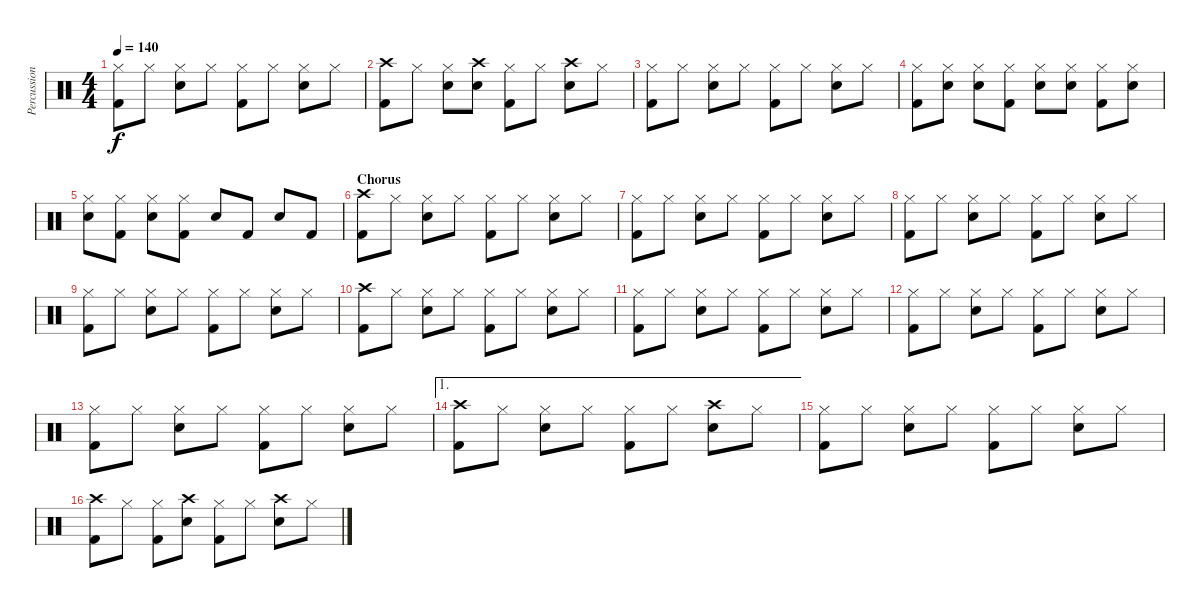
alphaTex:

\track ("Percussion" "Percussion") {instrument percussion}
\staff {score}
\articulation defaults
\ts (4 4)
\tempo 140
\clef neutral
\ks c
("Hi-Hat (closed)" "Kick (hit) 2").8{dy f} "Hi-Hat (closed)".8 ("Hi-Hat (closed)" "Snare (hit) 2").8 "Hi-Hat (closed)".8 ("Hi-Hat (closed)" "Kick (hit) 2").8 "Hi-Hat (closed)".8 ("Hi-Hat (closed)" "Snare (hit) 2").8 "Hi-Hat (closed)".8 |
("Crash high (hit)" "Kick (hit) 2").8 "Hi-Hat (closed)".8 ("Hi-Hat (closed)" "Snare (hit) 2").8 ("Crash high (hit)" "Snare (hit) 2").8 ("Hi-Hat (closed)" "Kick (hit) 2").8 "Hi-Hat (closed)".8 ("Crash high (hit)" "Snare (hit) 2").8 "Hi-Hat (closed)".8 |
("Hi-Hat (closed)" "Kick (hit) 2").8 "Hi-Hat (closed)".8 ("Hi-Hat (closed)" "Snare (hit) 2").8 "Hi-Hat (closed)".8 ("Hi-Hat (closed)" "Kick (hit) 2").8 "Hi-Hat (closed)".8 ("Hi-Hat (closed)" "Snare (hit) 2").8 "Hi-Hat (closed)".8 |
("Hi-Hat (closed)" "Kick (hit) 2").8 ("Hi-Hat (closed)" "Snare (hit) 2").8 ("Hi-Hat (closed)" "Snare (hit) 2").8 ("Hi-Hat (closed)" "Kick (hit) 2").8 ("Hi-Hat (closed)" "Snare (hit) 2").8 ("Hi-Hat (closed)" "Snare (hit) 2").8 ("Hi-Hat (closed)" "Kick (hit) 2").8 ("Hi-Hat (closed)" "Snare (hit) 2").8 |
("Hi-Hat (closed)" "Snare (hit) 2").8 ("Hi-Hat (closed)" "Kick (hit) 2").8 ("Hi-Hat (closed)" "Snare (hit) 2").8 ("Hi-Hat (closed)" "Kick (hit) 2").8 "Snare (hit) 2".8 "Kick (hit) 2".8 "Snare (hit) 2".8 "Kick (hit) 2".8 |
\section ("" "Chorus")
("Crash high (hit)" "Kick (hit) 2").8 "Hi-Hat (closed)".8 ("Hi-Hat (closed)" "Snare (hit) 2").8 "Hi-Hat (closed)".8 ("Hi-Hat (closed)" "Kick (hit) 2").8 "Hi-Hat (closed)".8 ("Hi-Hat (closed)" "Snare (hit) 2").8 "Hi-Hat (closed)".8 |
("Hi-Hat (closed)" "Kick (hit) 2").8 "Hi-Hat (closed)".8 ("Hi-Hat (closed)" "Snare (hit) 2").8 "Hi-Hat (closed)".8 ("Hi-Hat (closed)" "Kick (hit) 2").8 "Hi-Hat (closed)".8 ("Hi-Hat (closed)" "Snare (hit) 2").8 "Hi-Hat (closed)".8 |
("Hi-Hat (closed)" "Kick (hit) 2").8 "Hi-Hat (closed)".8 ("Hi-Hat (closed)" "Snare (hit) 2").8 "Hi-Hat (closed)".8 ("Hi-Hat (closed)" "Kick (hit) 2").8 "Hi-Hat (closed)".8 ("Hi-Hat (closed)" "Snare (hit) 2").8 "Hi-Hat (closed)".8 |
("Hi-Hat (closed)" "Kick (hit) 2").8 "Hi-Hat (closed)".8 ("Hi-Hat (closed)" "Snare (hit) 2").8 "Hi-Hat (closed)".8 ("Hi-Hat (closed)" "Kick (hit) 2").8 "Hi-Hat (closed)".8 ("Hi-Hat (closed)" "Snare (hit) 2").8 "Hi-Hat (closed)".8 |
("Crash high (hit)" "Kick (hit) 2").8 "Hi-Hat (closed)".8 ("Hi-Hat (closed)" "Snare (hit) 2").8 "Hi-Hat (closed)".8 ("Hi-Hat (closed)" "Kick (hit) 2").8 "Hi-Hat (closed)".8 ("Hi-Hat (closed)" "Snare (hit) 2").8 "Hi-Hat (closed)".8 |
("Hi-Hat (closed)" "Kick (hit) 2").8 "Hi-Hat (closed)".8 ("Hi-Hat (closed)" "Snare (hit) 2").8 "Hi-Hat (closed)".8 ("Hi-Hat (closed)" "Kick (hit) 2").8 "Hi-Hat (closed)".8 ("Hi-Hat (closed)" "Snare (hit) 2").8 "Hi-Hat (closed)".8 |
("Hi-Hat (closed)" "Kick (hit) 2").8 "Hi-Hat (closed)".8 ("Hi-Hat (closed)" "Snare (hit) 2").8 "Hi-Hat (closed)".8 ("Hi-Hat (closed)" "Kick (hit) 2").8 "Hi-Hat (closed)".8 ("Hi-Hat (closed)" "Snare (hit) 2").8 "Hi-Hat (closed)".8 |
("Hi-Hat (closed)" "Kick (hit) 2").8 "Hi-Hat (closed)".8 ("Hi-Hat (closed)" "Snare (hit) 2").8 "Hi-Hat (closed)".8 ("Hi-Hat (closed)" "Kick (hit) 2").8 "Hi-Hat (closed)".8 ("Hi-Hat (closed)" "Snare (hit) 2").8 "Hi-Hat (closed)".8 |
\ae 1
("Crash high (hit)" "Kick (hit) 2").8 "Hi-Hat (closed)".8 ("Hi-Hat (closed)" "Snare (hit) 2").8 "Hi-Hat (closed)".8 ("Hi-Hat (closed)" "Kick (hit) 2").8 "Hi-Hat (closed)".8 ("Crash high (hit)" "Snare (hit) 2").8 "Hi-Hat (closed)".8 |
("Hi-Hat (closed)" "Kick (hit) 2").8 "Hi-Hat (closed)".8 ("Hi-Hat (closed)" "Snare (hit) 2").8 "Hi-Hat (closed)".8 ("Hi-Hat (closed)" "Kick (hit) 2").8 "Hi-Hat (closed)".8 ("Hi-Hat (closed)" "Snare (hit) 2").8 "Hi-Hat (closed)".8 |
("Crash high (hit)" "Kick (hit) 2").8 "Hi-Hat (closed)".8 ("Hi-Hat (closed)" "Kick (hit) 2").8 ("Crash high (hit)" "Snare (hit) 2").8 ("Hi-Hat (closed)" "Kick (hit) 2").8 "Hi-Hat (closed)".8 ("Crash high (hit)" "Snare (hit) 2").8 "Hi-Hat (closed)".8
